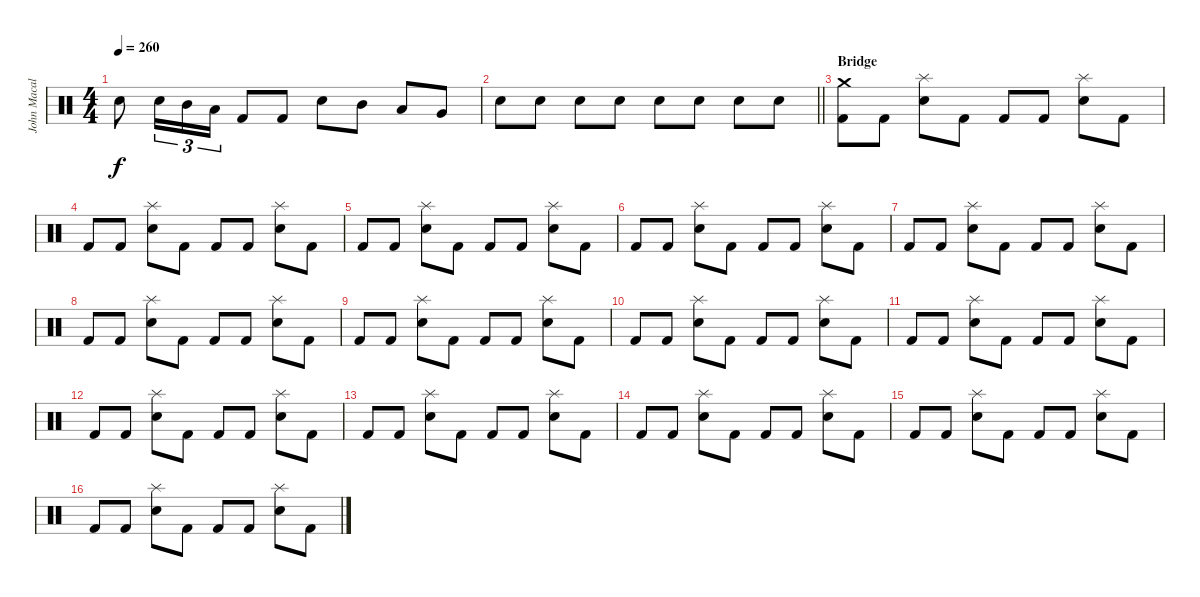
\track ("John Macaluso" "John Macal") {instrument percussion}
\staff {score}
\articulation defaults
\ts (4 4)
\tempo 260
\clef neutral
\ks c "Snare (hit) 2".8{dy f} "Snare (hit) 2".16{tu (3 2)} "Mid Tom (hit)".16{tu (3 2)} "Low Tom (hit)".16{tu (3 2)} "Kick (hit) 2".8 "Kick (hit) 2".8 "Snare (hit) 2".8 "Mid Tom (hit)".8 "Low Tom (hit)".8 "Very Low Tom (hit)".8
|
\barLineRight lightlight "Snare (hit) 2".8 "Snare (hit) 2".8 "Snare (hit) 2".8 "Snare (hit) 2".8 "Snare (hit) 2".8 "Snare (hit) 2".8 "Snare (hit) 2".8 "Snare (hit) 2".8
|
\section ("" "Bridge")
("Crash medium (hit)" "Kick (hit) 2").8 "Kick (hit) 2".8 ("Splash (hit)" "Snare (hit) 2").8 "Kick (hit) 2".8 "Kick (hit) 2".8 "Kick (hit) 2".8 ("Splash (hit)" "Snare (hit) 2").8 "Kick (hit) 2".8 |
"Kick (hit) 2".8 "Kick (hit) 2".8 ("Splash (hit)" "Snare (hit) 2").8 "Kick (hit) 2".8 "Kick (hit) 2".8 "Kick (hit) 2".8 ("Splash (hit)" "Snare (hit) 2").8 "Kick (hit) 2".8 |
"Kick (hit) 2".8 "Kick (hit) 2".8 ("Splash (hit)" "Snare (hit) 2").8 "Kick (hit) 2".8 "Kick (hit) 2".8 "Kick (hit) 2".8 ("Splash (hit)" "Snare (hit) 2").8 "Kick (hit) 2".8 |
"Kick (hit) 2".8 "Kick (hit) 2".8 ("Splash (hit)" "Snare (hit) 2").8 "Kick (hit) 2".8 "Kick (hit) 2".8 "Kick (hit) 2".8 ("Splash (hit)" "Snare (hit) 2").8 "Kick (hit) 2".8 |
"Kick (hit) 2".8 "Kick (hit) 2".8 ("Splash (hit)" "Snare (hit) 2").8 "Kick (hit) 2".8 "Kick (hit) 2".8 "Kick (hit) 2".8 ("Splash (hit)" "Snare (hit) 2").8 "Kick (hit) 2".8 |
"Kick (hit) 2".8 "Kick (hit) 2".8 ("Splash (hit)" "Snare (hit) 2").8 "Kick (hit) 2".8 "Kick (hit) 2".8 "Kick (hit) 2".8 ("Splash (hit)" "Snare (hit) 2").8 "Kick (hit) 2".8 |
"Kick (hit) 2".8 "Kick (hit) 2".8 ("Splash (hit)" "Snare (hit) 2").8 "Kick (hit) 2".8 "Kick (hit) 2".8 "Kick (hit) 2".8 ("Splash (hit)" "Snare (hit) 2").8 "Kick (hit) 2".8 |
"Kick (hit) 2".8 "Kick (hit) 2".8 ("Splash (hit)" "Snare (hit) 2").8 "Kick (hit) 2".8 "Kick (hit) 2".8 "Kick (hit) 2".8 ("Splash (hit)" "Snare (hit) 2").8 "Kick (hit) 2".8 |
"Kick (hit) 2".8 "Kick (hit) 2".8 ("Splash (hit)" "Snare (hit) 2").8 "Kick (hit) 2".8 "Kick (hit) 2".8 "Kick (hit) 2".8 ("Splash (hit)" "Snare (hit) 2").8 "Kick (hit) 2".8 |
"Kick (hit) 2".8 "Kick (hit) 2".8 ("Splash (hit)" "Snare (hit) 2").8 "Kick (hit) 2".8 "Kick (hit) 2".8 "Kick (hit) 2".8 ("Splash (hit)" "Snare (hit) 2").8 "Kick (hit) 2".8 |
"Kick (hit) 2".8 "Kick (hit) 2".8 ("Splash (hit)" "Snare (hit) 2").8 "Kick (hit) 2".8 "Kick (hit) 2".8 "Kick (hit) 2".8 ("Splash (hit)" "Snare (hit) 2").8 "Kick (hit) 2".8 |
"Kick (hit) 2".8 "Kick (hit) 2".8 ("Splash (hit)" "Snare (hit) 2").8 "Kick (hit) 2".8 "Kick (hit) 2".8 "Kick (hit) 2".8 ("Splash (hit)" "Snare (hit) 2").8 "Kick (hit) 2".8 |
"Kick (hit) 2".8 "Kick (hit) 2".8 ("Splash (hit)" "Snare (hit) 2").8 "Kick (hit) 2".8 "Kick (hit) 2".8 "Kick (hit) 2".8 ("Splash (hit)" "Snare (hit) 2").8 "Kick (hit) 2".8 |
"Kick (hit) 2".8 "Kick (hit) 2".8 ("Splash (hit)" "Snare (hit) 2").8 "Kick (hit) 2".8 "Kick (hit) 2".8 "Kick (hit) 2".8 ("Splash (hit)" "Snare (hit) 2").8 "Kick (hit) 2".8
